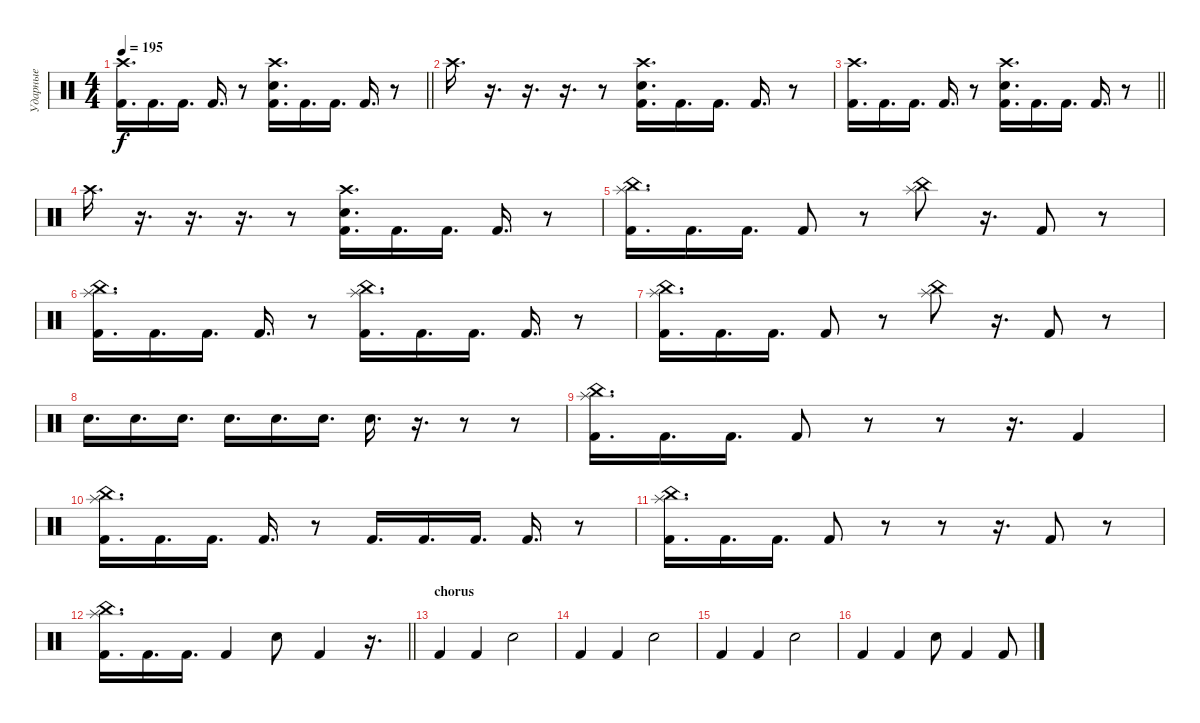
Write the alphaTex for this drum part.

\track ("Ударные" "Ударные") {instrument percussion}
\staff {score}
\articulation defaults
\ts (4 4)
\tempo 195
\clef neutral
\barLineRight lightlight
\ks c
("Crash high (hit)" "Kick (hit) 2").16{d dy f} "Kick (hit) 2".16{d} "Kick (hit) 2".16{d} "Kick (hit) 2".16{d} r.8 ("Crash high (hit)" "Electric Snare (hit)" "Kick (hit) 2").16{d} "Kick (hit) 2".16{d} "Kick (hit) 2".16{d} "Kick (hit) 2".16{d} r.8 |
"Crash high (hit)".16{d} r.16{d} r.16{d} r.16{d} r.8 ("Crash high (hit)" "Electric Snare (hit)" "Kick (hit) 2").16{d} "Kick (hit) 2".16{d} "Kick (hit) 2".16{d} "Kick (hit) 2".16{d} r.8 |
\barLineRight lightlight
("Crash high (hit)" "Kick (hit) 2").16{d} "Kick (hit) 2".16{d} "Kick (hit) 2".16{d} "Kick (hit) 2".16{d} r.8 ("Crash high (hit)" "Electric Snare (hit)" "Kick (hit) 2").16{d} "Kick (hit) 2".16{d} "Kick (hit) 2".16{d} "Kick (hit) 2".16{d} r.8 |
"Crash high (hit)".16{d} r.16{d} r.16{d} r.16{d} r.8 ("Crash high (hit)" "Electric Snare (hit)" "Kick (hit) 2").16{d} "Kick (hit) 2".16{d} "Kick (hit) 2".16{d} "Kick (hit) 2".16{d} r.8 |
("China (hit)" "Splash (hit)" "Kick (hit) 2").16{d} "Kick (hit) 2".16{d} "Kick (hit) 2".16{d} "Kick (hit) 2".8 r.8 ("China (hit)" "Splash (hit)").8 r.16{d} "Kick (hit) 2".8 r.8 |
("China (hit)" "Splash (hit)" "Kick (hit) 2").16{d} "Kick (hit) 2".16{d} "Kick (hit) 2".16{d} "Kick (hit) 2".16{d} r.8 ("China (hit)" "Splash (hit)" "Kick (hit) 2").16{d} "Kick (hit) 2".16{d} "Kick (hit) 2".16{d} "Kick (hit) 2".16{d} r.8 |
("China (hit)" "Splash (hit)" "Kick (hit) 2").16{d} "Kick (hit) 2".16{d} "Kick (hit) 2".16{d} "Kick (hit) 2".8 r.8 ("China (hit)" "Splash (hit)").8 r.16{d} "Kick (hit) 2".8 r.8 |
"Snare (hit) 2".16{d} "Snare (hit) 2".16{d} "Snare (hit) 2".16{d} "Snare (hit) 2".16{d} "Snare (hit) 2".16{d} "Snare (hit) 2".16{d} "Snare (hit) 2".16{d} r.16{d} r.8 r.8 |
("China (hit)" "Splash (hit)" "Kick (hit) 2").16{d} "Kick (hit) 2".16{d} "Kick (hit) 2".16{d} "Kick (hit) 2".8 r.8 r.8 r.16{d} "Kick (hit) 2".4 |
("China (hit)" "Splash (hit)" "Kick (hit) 2").16{d} "Kick (hit) 2".16{d} "Kick (hit) 2".16{d} "Kick (hit) 2".16{d} r.8 "Kick (hit) 2".16{d} "Kick (hit) 2".16{d} "Kick (hit) 2".16{d} "Kick (hit) 2".16{d} r.8 |
("China (hit)" "Splash (hit)" "Kick (hit) 2").16{d} "Kick (hit) 2".16{d} "Kick (hit) 2".16{d} "Kick (hit) 2".8 r.8 r.8 r.16{d} "Kick (hit) 2".8 r.8 |
\barLineRight lightlight
("China (hit)" "Splash (hit)" "Kick (hit) 2").16{d} "Kick (hit) 2".16{d} "Kick (hit) 2".16{d} "Kick (hit) 2".4 "Electric Snare (hit)".8 "Kick (hit) 2".4 r.16{d} |
\section ("" "chorus")
"Kick (hit) 2".4 "Kick (hit) 2".4 "Electric Snare (hit)".2 |
"Kick (hit) 2".4 "Kick (hit) 2".4 "Electric Snare (hit)".2 |
"Kick (hit) 2".4 "Kick (hit) 2".4 "Electric Snare (hit)".2 |
"Kick (hit) 2".4 "Kick (hit) 2".4 "Electric Snare (hit)".8 "Kick (hit) 2".4 "Kick (hit) 2".8
